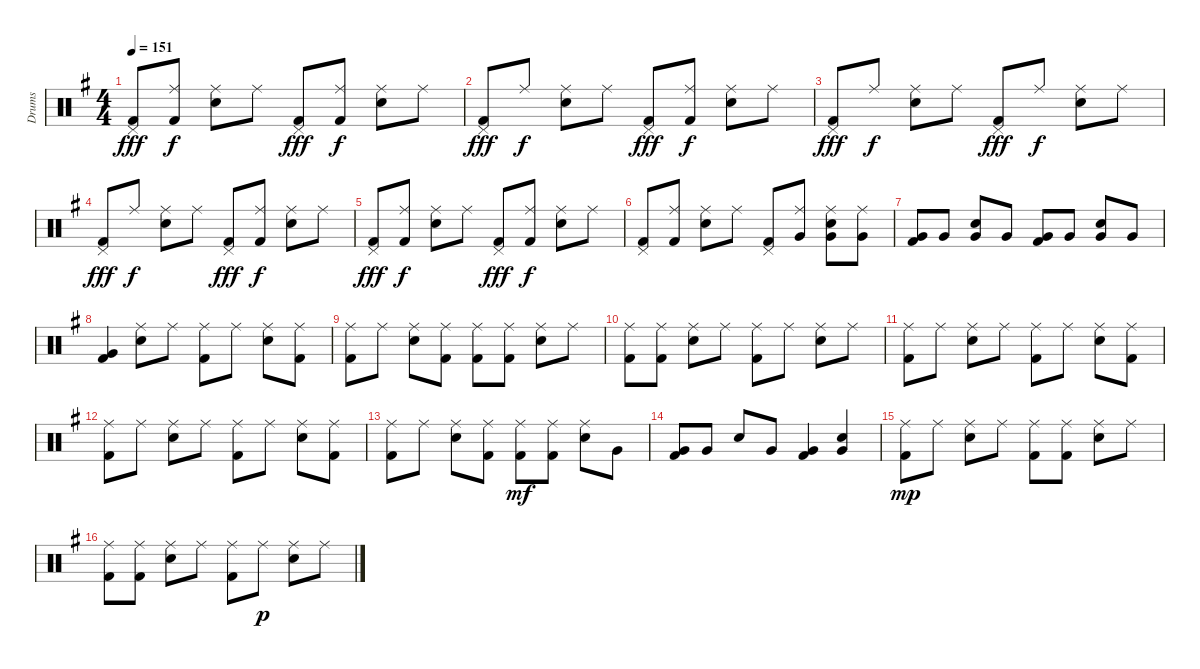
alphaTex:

\track ("Drums " "Drums ") {instrument percussion}
\staff {score}
\articulation defaults
\ts (4 4)
\tempo 151
\clef neutral
\ks eminor
("Pedal Hi-Hat (hit)" "Kick (hit) 2").8{dy fff} ("Kick (hit) 2" "Ride (middle)").8{dy f} ("Snare (hit) 2" "Ride (middle)").8 "Ride (middle)".8 ("Pedal Hi-Hat (hit)" "Kick (hit) 2").8{dy fff} ("Kick (hit) 2" "Ride (middle)").8{dy f} ("Snare (hit) 2" "Ride (middle)").8 "Ride (middle)".8 |
("Pedal Hi-Hat (hit)" "Kick (hit) 2").8{dy fff} "Ride (middle)".8{dy f} ("Snare (hit) 2" "Ride (middle)").8 "Ride (middle)".8 ("Pedal Hi-Hat (hit)" "Kick (hit) 2").8{dy fff} ("Kick (hit) 2" "Ride (middle)").8{dy f} ("Snare (hit) 2" "Ride (middle)").8 "Ride (middle)".8 |
("Pedal Hi-Hat (hit)" "Kick (hit) 2").8{dy fff} "Ride (middle)".8{dy f} ("Snare (hit) 2" "Ride (middle)").8 "Ride (middle)".8 ("Pedal Hi-Hat (hit)" "Kick (hit) 2").8{dy fff} "Ride (middle)".8{dy f} ("Snare (hit) 2" "Ride (middle)").8 "Ride (middle)".8 |
("Pedal Hi-Hat (hit)" "Kick (hit) 2").8{dy fff} "Ride (middle)".8{dy f} ("Snare (hit) 2" "Ride (middle)").8 "Ride (middle)".8 ("Pedal Hi-Hat (hit)" "Kick (hit) 2").8{dy fff} ("Kick (hit) 2" "Ride (middle)").8{dy f} ("Snare (hit) 2" "Ride (middle)").8 "Ride (middle)".8 |
("Pedal Hi-Hat (hit)" "Kick (hit) 2").8{dy fff} ("Kick (hit) 2" "Ride (middle)").8{dy f} ("Snare (hit) 2" "Ride (middle)").8 "Ride (middle)".8 ("Pedal Hi-Hat (hit)" "Kick (hit) 2").8{dy fff} ("Kick (hit) 2" "Ride (middle)").8{dy f} ("Snare (hit) 2" "Ride (middle)").8 "Ride (middle)".8 |
("Kick (hit) 2" "Pedal Hi-Hat (hit)").8 ("Kick (hit) 2" "Ride (middle)").8 ("Snare (hit) 2" "Ride (middle)").8 "Ride (middle)".8 ("Kick (hit) 2" "Pedal Hi-Hat (hit)").8 ("Very Low Tom (hit)" "Ride (middle)").8 ("Very Low Tom (hit)" "Snare (hit) 2" "Ride (middle)").8 ("Very Low Tom (hit)" "Ride (middle)").8 |
("Kick (hit) 2" "Very Low Tom (hit)").8 "Very Low Tom (hit)".8 ("Snare (hit) 2" "Very Low Tom (hit)").8 "Very Low Tom (hit)".8 ("Kick (hit) 2" "Very Low Tom (hit)").8 "Very Low Tom (hit)".8 ("Snare (hit) 2" "Very Low Tom (hit)").8 "Very Low Tom (hit)".8 |
("Very Low Tom (hit)" "Kick (hit) 2").4 ("Ride (middle)" "Snare (hit) 2").8 "Ride (middle)".8 ("Ride (middle)" "Kick (hit) 2").8 "Ride (middle)".8 ("Ride (middle)" "Snare (hit) 2").8 ("Ride (middle)" "Kick (hit) 2").8 |
("Kick (hit) 2" "Ride (middle)").8 "Ride (middle)".8 ("Snare (hit) 2" "Ride (middle)").8 ("Kick (hit) 2" "Ride (middle)").8 ("Kick (hit) 2" "Ride (middle)").8 ("Kick (hit) 2" "Ride (middle)").8 ("Snare (hit) 2" "Ride (middle)").8 "Ride (middle)".8 |
("Ride (middle)" "Kick (hit) 2").8 ("Ride (middle)" "Kick (hit) 2").8 ("Ride (middle)" "Snare (hit) 2").8 "Ride (middle)".8 ("Ride (middle)" "Kick (hit) 2").8 "Ride (middle)".8 ("Ride (middle)" "Snare (hit) 2").8 "Ride (middle)".8 |
("Ride (middle)" "Kick (hit) 2").8 "Ride (middle)".8 ("Ride (middle)" "Snare (hit) 2").8 "Ride (middle)".8 ("Ride (middle)" "Kick (hit) 2").8 "Ride (middle)".8 ("Ride (middle)" "Snare (hit) 2").8 ("Kick (hit) 2" "Ride (middle)").8 |
("Ride (middle)" "Kick (hit) 2").8 "Ride (middle)".8 ("Ride (middle)" "Snare (hit) 2").8 "Ride (middle)".8 ("Ride (middle)" "Kick (hit) 2").8 "Ride (middle)".8 ("Ride (middle)" "Snare (hit) 2").8 ("Kick (hit) 2" "Ride (middle)").8 |
("Ride (middle)" "Kick (hit) 2").8 "Ride (middle)".8 ("Ride (middle)" "Snare (hit) 2").8 ("Kick (hit) 2" "Ride (middle)").8 ("Ride (middle)" "Kick (hit) 2").8{dy mf} ("Kick (hit) 2" "Ride (middle)").8 ("Ride (middle)" "Snare (hit) 2").8 "Very Low Tom (hit)".8 |
("Very Low Tom (hit)" "Kick (hit) 2").8 "Very Low Tom (hit)".8 "Snare (hit) 2".8 "Very Low Tom (hit)".8 ("Very Low Tom (hit)" "Kick (hit) 2").4 ("Very Low Tom (hit)" "Snare (hit) 2").4 |
("Kick (hit) 2" "Ride (middle)").8{dy mp} "Ride (middle)".8 ("Snare (hit) 2" "Ride (middle)").8 "Ride (middle)".8 ("Kick (hit) 2" "Ride (middle)").8 ("Kick (hit) 2" "Ride (middle)").8 ("Snare (hit) 2" "Ride (middle)").8 "Ride (middle)".8 |
("Kick (hit) 2" "Ride (middle)").8 ("Kick (hit) 2" "Ride (middle)").8 ("Snare (hit) 2" "Ride (middle)").8 "Ride (middle)".8 ("Kick (hit) 2" "Ride (middle)").8 "Ride (middle)".8{dy p} ("Snare (hit) 2" "Ride (middle)").8 "Ride (middle)".8
